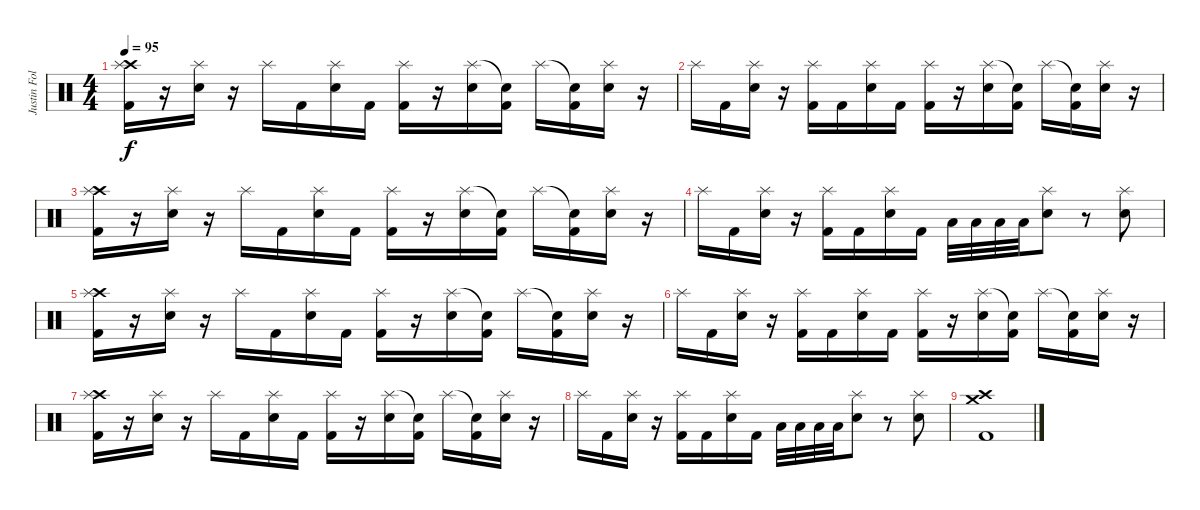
\track ("Justin Foley" "Justin Fol") {instrument percussion}
\staff {score}
\articulation defaults
\ts (4 4)
\tempo 95
\clef neutral
\ks c
("Crash high (hit)" "Splash (hit)" "Kick (hit) 2").16{dy f} r.16 ("Splash (hit)" "Snare (hit) 2").16 r.16 "Splash (hit)".16 "Kick (hit) 2".16 ("Splash (hit)" "Snare (hit) 2").16 "Kick (hit) 2".16 ("Splash (hit)" "Kick (hit) 2").16 r.16 ("Splash (hit)" "Snare (hit) 2").16 ("Snare (hit)"{t} "Kick (hit) 2").16 "Splash (hit)".16 ("Snare (hit)"{t} "Kick (hit) 2").16 ("Splash (hit)" "Snare (hit) 2").16 r.16 |
"Splash (hit)".16 "Kick (hit) 2".16 ("Splash (hit)" "Snare (hit) 2").16 r.16 ("Splash (hit)" "Kick (hit) 2").16 "Kick (hit) 2".16 ("Splash (hit)" "Snare (hit) 2").16 "Kick (hit) 2".16 ("Splash (hit)" "Kick (hit) 2").16 r.16 ("Splash (hit)" "Snare (hit) 2").16 ("Snare (hit)"{t} "Kick (hit) 2").16 "Splash (hit)".16 ("Snare (hit)"{t} "Kick (hit) 2").16 ("Splash (hit)" "Snare (hit) 2").16 r.16 |
("Crash high (hit)" "Splash (hit)" "Kick (hit) 2").16 r.16 ("Splash (hit)" "Snare (hit) 2").16 r.16 "Splash (hit)".16 "Kick (hit) 2".16 ("Splash (hit)" "Snare (hit) 2").16 "Kick (hit) 2".16 ("Splash (hit)" "Kick (hit) 2").16 r.16 ("Splash (hit)" "Snare (hit) 2").16 ("Snare (hit)"{t} "Kick (hit) 2").16 "Splash (hit)".16 ("Snare (hit)"{t} "Kick (hit) 2").16 ("Splash (hit)" "Snare (hit) 2").16 r.16 |
"Splash (hit)".16 "Kick (hit) 2".16 ("Splash (hit)" "Snare (hit) 2").16 r.16 ("Splash (hit)" "Kick (hit) 2").16 "Kick (hit) 2".16 ("Splash (hit)" "Snare (hit) 2").16 "Kick (hit) 2".16 "Low Floor Tom (hit)".32 "Low Floor Tom (hit)".32 "Low Floor Tom (hit)".32 "Low Floor Tom (hit)".32 ("Splash (hit)" "Snare (hit) 2").8 r.8 ("Splash (hit)" "Snare (hit) 2").8 |
("Crash high (hit)" "Splash (hit)" "Kick (hit) 2").16 r.16 ("Splash (hit)" "Snare (hit) 2").16 r.16 "Splash (hit)".16 "Kick (hit) 2".16 ("Splash (hit)" "Snare (hit) 2").16 "Kick (hit) 2".16 ("Splash (hit)" "Kick (hit) 2").16 r.16 ("Splash (hit)" "Snare (hit) 2").16 ("Snare (hit)"{t} "Kick (hit) 2").16 "Splash (hit)".16 ("Snare (hit)"{t} "Kick (hit) 2").16 ("Splash (hit)" "Snare (hit) 2").16 r.16 |
"Splash (hit)".16 "Kick (hit) 2".16 ("Splash (hit)" "Snare (hit) 2").16 r.16 ("Splash (hit)" "Kick (hit) 2").16 "Kick (hit) 2".16 ("Splash (hit)" "Snare (hit) 2").16 "Kick (hit) 2".16 ("Splash (hit)" "Kick (hit) 2").16 r.16 ("Splash (hit)" "Snare (hit) 2").16 ("Snare (hit)"{t} "Kick (hit) 2").16 "Splash (hit)".16 ("Snare (hit)"{t} "Kick (hit) 2").16 ("Splash (hit)" "Snare (hit) 2").16 r.16 |
("Crash high (hit)" "Splash (hit)" "Kick (hit) 2").16 r.16 ("Splash (hit)" "Snare (hit) 2").16 r.16 "Splash (hit)".16 "Kick (hit) 2".16 ("Splash (hit)" "Snare (hit) 2").16 "Kick (hit) 2".16 ("Splash (hit)" "Kick (hit) 2").16 r.16 ("Splash (hit)" "Snare (hit) 2").16 ("Snare (hit)"{t} "Kick (hit) 2").16 "Splash (hit)".16 ("Snare (hit)"{t} "Kick (hit) 2").16 ("Splash (hit)" "Snare (hit) 2").16 r.16 |
"Splash (hit)".16 "Kick (hit) 2".16 ("Splash (hit)" "Snare (hit) 2").16 r.16 ("Splash (hit)" "Kick (hit) 2").16 "Kick (hit) 2".16 ("Splash (hit)" "Snare (hit) 2").16 "Kick (hit) 2".16 "Low Floor Tom (hit)".32 "Low Floor Tom (hit)".32 "Low Floor Tom (hit)".32 "Low Floor Tom (hit)".32 ("Splash (hit)" "Snare (hit) 2").8 r.8 ("Splash (hit)" "Snare (hit) 2").8 |
("Crash high (hit)" "Crash medium (hit)" "Kick (hit) 2").1
